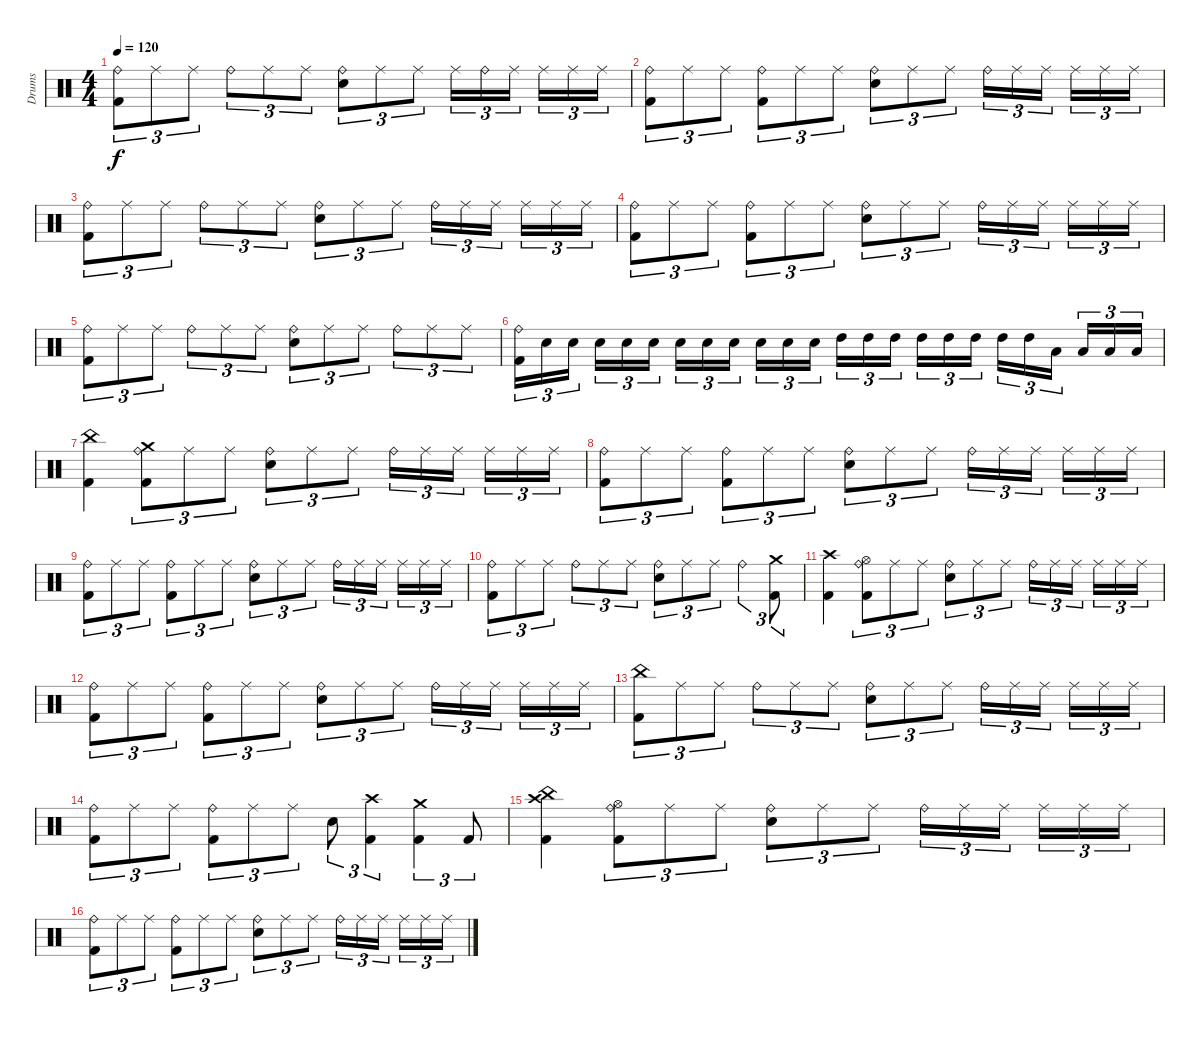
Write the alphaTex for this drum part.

\track ("Drums" "Drums") {instrument percussion}
\staff {score}
\articulation defaults
\ts (4 4)
\tempo 120
\clef neutral
\ks c
("Ride (bell)" "Kick (hit) 2").8{tu (3 2) dy f} "Ride (middle)".8{tu (3 2)} "Ride (middle)".8{tu (3 2)} "Ride (bell)".8{tu (3 2)} "Ride (middle)".8{tu (3 2)} "Ride (middle)".8{tu (3 2)} ("Ride (bell)" "Electric Snare (hit)").8{tu (3 2)} "Ride (middle)".8{tu (3 2)} "Ride (middle)".8{tu (3 2)} "Ride (middle)".16{tu (3 2)} "Ride (bell)".16{tu (3 2)} "Ride (middle)".16{tu (3 2) beam splitsecondary} "Ride (middle)".16{tu (3 2)} "Ride (middle)".16{tu (3 2)} "Ride (middle)".16{tu (3 2)} |
("Ride (bell)" "Kick (hit) 2").8{tu (3 2)} "Ride (middle)".8{tu (3 2)} "Ride (middle)".8{tu (3 2)} ("Ride (bell)" "Kick (hit) 2").8{tu (3 2)} "Ride (middle)".8{tu (3 2)} "Ride (middle)".8{tu (3 2)} ("Ride (bell)" "Electric Snare (hit)").8{tu (3 2)} "Ride (middle)".8{tu (3 2)} "Ride (middle)".8{tu (3 2)} "Ride (bell)".16{tu (3 2)} "Ride (middle)".16{tu (3 2)} "Ride (middle)".16{tu (3 2) beam splitsecondary} "Ride (middle)".16{tu (3 2)} "Ride (middle)".16{tu (3 2)} "Ride (middle)".16{tu (3 2)} |
("Ride (bell)" "Kick (hit) 2").8{tu (3 2)} "Ride (middle)".8{tu (3 2)} "Ride (middle)".8{tu (3 2)} "Ride (bell)".8{tu (3 2)} "Ride (middle)".8{tu (3 2)} "Ride (middle)".8{tu (3 2)} ("Ride (bell)" "Electric Snare (hit)").8{tu (3 2)} "Ride (middle)".8{tu (3 2)} "Ride (middle)".8{tu (3 2)} "Ride (bell)".16{tu (3 2)} "Ride (middle)".16{tu (3 2)} "Ride (middle)".16{tu (3 2) beam splitsecondary} "Ride (middle)".16{tu (3 2)} "Ride (middle)".16{tu (3 2)} "Ride (middle)".16{tu (3 2)} |
("Ride (bell)" "Kick (hit) 2").8{tu (3 2)} "Ride (middle)".8{tu (3 2)} "Ride (middle)".8{tu (3 2)} ("Ride (bell)" "Kick (hit) 2").8{tu (3 2)} "Ride (middle)".8{tu (3 2)} "Ride (middle)".8{tu (3 2)} ("Ride (bell)" "Electric Snare (hit)").8{tu (3 2)} "Ride (middle)".8{tu (3 2)} "Ride (middle)".8{tu (3 2)} "Ride (bell)".16{tu (3 2)} "Ride (middle)".16{tu (3 2)} "Ride (middle)".16{tu (3 2) beam splitsecondary} "Ride (middle)".16{tu (3 2)} "Ride (middle)".16{tu (3 2)} "Ride (middle)".16{tu (3 2)} |
("Ride (bell)" "Kick (hit) 2").8{tu (3 2)} "Ride (middle)".8{tu (3 2)} "Ride (middle)".8{tu (3 2)} "Ride (bell)".8{tu (3 2)} "Ride (middle)".8{tu (3 2)} "Ride (middle)".8{tu (3 2)} ("Ride (bell)" "Electric Snare (hit)").8{tu (3 2)} "Ride (middle)".8{tu (3 2)} "Ride (middle)".8{tu (3 2)} "Ride (bell)".8{tu (3 2)} "Ride (middle)".8{tu (3 2)} "Ride (middle)".8{tu (3 2)} |
("Ride (bell)" "Kick (hit) 2").16{tu (3 2)} "Electric Snare (hit)".16{tu (3 2)} "Electric Snare (hit)".16{tu (3 2) beam splitsecondary} "Electric Snare (hit)".16{tu (3 2)} "Electric Snare (hit)".16{tu (3 2)} "Electric Snare (hit)".16{tu (3 2)} "Electric Snare (hit)".16{tu (3 2)} "Electric Snare (hit)".16{tu (3 2)} "Electric Snare (hit)".16{tu (3 2) beam splitsecondary} "Electric Snare (hit)".16{tu (3 2)} "Electric Snare (hit)".16{tu (3 2)} "Electric Snare (hit)".16{tu (3 2)} "High Tom (hit)".16{tu (3 2)} "High Tom (hit)".16{tu (3 2)} "High Tom (hit)".16{tu (3 2) beam splitsecondary} "High Tom (hit)".16{tu (3 2)} "High Tom (hit)".16{tu (3 2)} "High Tom (hit)".16{tu (3 2)} "High Tom (hit)".16{tu (3 2)} "High Tom (hit)".16{tu (3 2)} "Low Floor Tom (hit)".16{tu (3 2) beam splitsecondary} "Low Floor Tom (hit)".16{tu (3 2)} "Low Floor Tom (hit)".16{tu (3 2)} "Low Floor Tom (hit)".16{tu (3 2)} |
("China (hit)" "Kick (hit) 2").4 ("Crash medium (hit)" "Ride (bell)" "Kick (hit) 2").8{tu (3 2)} "Ride (middle)".8{tu (3 2)} "Ride (middle)".8{tu (3 2)} ("Ride (bell)" "Electric Snare (hit)").8{tu (3 2)} "Ride (middle)".8{tu (3 2)} "Ride (middle)".8{tu (3 2)} "Ride (bell)".16{tu (3 2)} "Ride (middle)".16{tu (3 2)} "Ride (middle)".16{tu (3 2) beam splitsecondary} "Ride (middle)".16{tu (3 2)} "Ride (middle)".16{tu (3 2)} "Ride (middle)".16{tu (3 2)} |
("Ride (bell)" "Kick (hit) 2").8{tu (3 2)} "Ride (middle)".8{tu (3 2)} "Ride (middle)".8{tu (3 2)} ("Ride (bell)" "Kick (hit) 2").8{tu (3 2)} "Ride (middle)".8{tu (3 2)} "Ride (middle)".8{tu (3 2)} ("Ride (bell)" "Electric Snare (hit)").8{tu (3 2)} "Ride (middle)".8{tu (3 2)} "Ride (middle)".8{tu (3 2)} "Ride (bell)".16{tu (3 2)} "Ride (middle)".16{tu (3 2)} "Ride (middle)".16{tu (3 2) beam splitsecondary} "Ride (middle)".16{tu (3 2)} "Ride (middle)".16{tu (3 2)} "Ride (middle)".16{tu (3 2)} |
("Ride (bell)" "Kick (hit) 2").8{tu (3 2)} "Ride (middle)".8{tu (3 2)} "Ride (middle)".8{tu (3 2)} ("Ride (bell)" "Kick (hit) 2").8{tu (3 2)} "Ride (middle)".8{tu (3 2)} "Ride (middle)".8{tu (3 2)} ("Ride (bell)" "Electric Snare (hit)").8{tu (3 2)} "Ride (middle)".8{tu (3 2)} "Ride (middle)".8{tu (3 2)} "Ride (bell)".16{tu (3 2)} "Ride (middle)".16{tu (3 2)} "Ride (middle)".16{tu (3 2) beam splitsecondary} "Ride (middle)".16{tu (3 2)} "Ride (middle)".16{tu (3 2)} "Ride (middle)".16{tu (3 2)} |
("Ride (bell)" "Kick (hit) 2").8{tu (3 2)} "Ride (middle)".8{tu (3 2)} "Ride (middle)".8{tu (3 2)} "Ride (bell)".8{tu (3 2)} "Ride (middle)".8{tu (3 2)} "Ride (middle)".8{tu (3 2)} ("Ride (bell)" "Electric Snare (hit)").8{tu (3 2)} "Ride (middle)".8{tu (3 2)} "Ride (middle)".8{tu (3 2)} "Ride (bell)".4{tu (3 2)} ("Crash medium (hit)" "Kick (hit) 2").8{tu (3 2)} |
("Crash high (hit)" "Kick (hit) 2").4 ("Hi-Hat (open)" "Ride (bell)" "Kick (hit) 2").8{tu (3 2)} "Ride (middle)".8{tu (3 2)} "Ride (middle)".8{tu (3 2)} ("Ride (bell)" "Electric Snare (hit)").8{tu (3 2)} "Ride (middle)".8{tu (3 2)} "Ride (middle)".8{tu (3 2)} "Ride (bell)".16{tu (3 2)} "Ride (middle)".16{tu (3 2)} "Ride (middle)".16{tu (3 2) beam splitsecondary} "Ride (middle)".16{tu (3 2)} "Ride (middle)".16{tu (3 2)} "Ride (middle)".16{tu (3 2)} |
("Ride (bell)" "Kick (hit) 2").8{tu (3 2)} "Ride (middle)".8{tu (3 2)} "Ride (middle)".8{tu (3 2)} ("Ride (bell)" "Kick (hit) 2").8{tu (3 2)} "Ride (middle)".8{tu (3 2)} "Ride (middle)".8{tu (3 2)} ("Ride (bell)" "Electric Snare (hit)").8{tu (3 2)} "Ride (middle)".8{tu (3 2)} "Ride (middle)".8{tu (3 2)} "Ride (bell)".16{tu (3 2)} "Ride (middle)".16{tu (3 2)} "Ride (middle)".16{tu (3 2) beam splitsecondary} "Ride (middle)".16{tu (3 2)} "Ride (middle)".16{tu (3 2)} "Ride (middle)".16{tu (3 2)} |
("China (hit)" "Kick (hit) 2").8{tu (3 2)} "Ride (middle)".8{tu (3 2)} "Ride (middle)".8{tu (3 2)} "Ride (bell)".8{tu (3 2)} "Ride (middle)".8{tu (3 2)} "Ride (middle)".8{tu (3 2)} ("Ride (bell)" "Electric Snare (hit)").8{tu (3 2)} "Ride (middle)".8{tu (3 2)} "Ride (middle)".8{tu (3 2)} "Ride (bell)".16{tu (3 2)} "Ride (middle)".16{tu (3 2)} "Ride (middle)".16{tu (3 2) beam splitsecondary} "Ride (middle)".16{tu (3 2)} "Ride (middle)".16{tu (3 2)} "Ride (middle)".16{tu (3 2)} |
("Ride (bell)" "Kick (hit) 2").8{tu (3 2)} "Ride (middle)".8{tu (3 2)} "Ride (middle)".8{tu (3 2)} ("Ride (bell)" "Kick (hit) 2").8{tu (3 2)} "Ride (middle)".8{tu (3 2)} "Ride (middle)".8{tu (3 2)} "Electric Snare (hit)".8{tu (3 2)} ("Crash high (hit)" "Kick (hit) 2").4{tu (3 2)} ("Crash medium (hit)" "Kick (hit) 2").4{tu (3 2)} "Kick (hit) 2".8{tu (3 2)} |
("China (hit)" "Crash high (hit)" "Kick (hit) 2").4 ("Hi-Hat (open)" "Ride (bell)" "Kick (hit) 2").8{tu (3 2)} "Ride (middle)".8{tu (3 2)} "Ride (middle)".8{tu (3 2)} ("Ride (bell)" "Electric Snare (hit)").8{tu (3 2)} "Ride (middle)".8{tu (3 2)} "Ride (middle)".8{tu (3 2)} "Ride (bell)".16{tu (3 2)} "Ride (middle)".16{tu (3 2)} "Ride (middle)".16{tu (3 2) beam splitsecondary} "Ride (middle)".16{tu (3 2)} "Ride (middle)".16{tu (3 2)} "Ride (middle)".16{tu (3 2)} |
("Ride (bell)" "Kick (hit) 2").8{tu (3 2)} "Ride (middle)".8{tu (3 2)} "Ride (middle)".8{tu (3 2)} ("Ride (bell)" "Kick (hit) 2").8{tu (3 2)} "Ride (middle)".8{tu (3 2)} "Ride (middle)".8{tu (3 2)} ("Ride (bell)" "Electric Snare (hit)").8{tu (3 2)} "Ride (middle)".8{tu (3 2)} "Ride (middle)".8{tu (3 2)} "Ride (bell)".16{tu (3 2)} "Ride (middle)".16{tu (3 2)} "Ride (middle)".16{tu (3 2) beam splitsecondary} "Ride (middle)".16{tu (3 2)} "Ride (middle)".16{tu (3 2)} "Ride (middle)".16{tu (3 2)}
